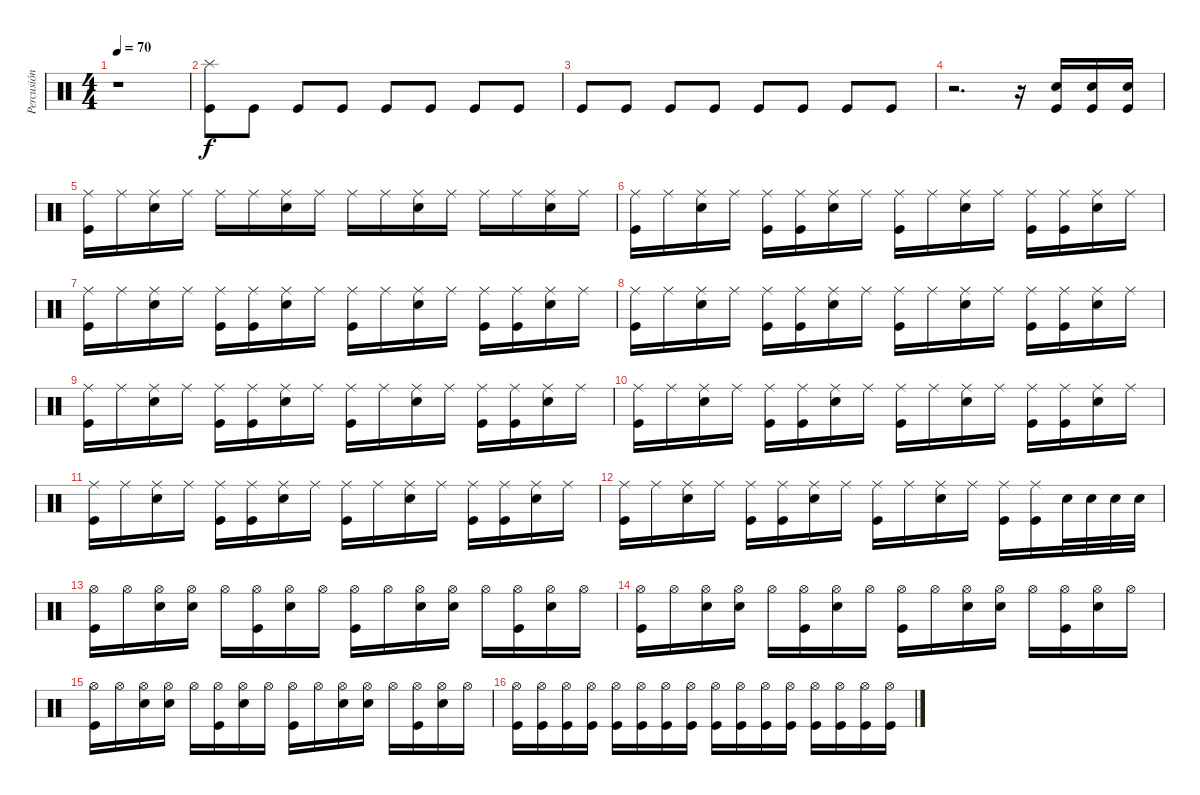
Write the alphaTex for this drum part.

\track ("Percusión" "Percusión") {instrument percussion}
\staff {score}
\articulation defaults
\ts (4 4)
\tempo 70
\clef neutral
\ks c
r.1{dy f} |
("Splash (hit)" "Kick (hit)").8 "Kick (hit)".8 "Kick (hit)".8 "Kick (hit)".8 "Kick (hit)".8 "Kick (hit)".8 "Kick (hit)".8 "Kick (hit)".8 |
"Kick (hit)".8 "Kick (hit)".8 "Kick (hit)".8 "Kick (hit)".8 "Kick (hit)".8 "Kick (hit)".8 "Kick (hit)".8 "Kick (hit)".8 |
r.2{d} r.16 ("Snare (hit) 2" "Kick (hit)").16 ("Snare (hit) 2" "Kick (hit)").16 ("Snare (hit) 2" "Kick (hit)").16 |
("Ride (middle)" "Kick (hit)").16 "Ride (middle)".16 ("Ride (middle)" "Snare (hit) 2").16 "Ride (middle)".16 "Ride (middle)".16 "Ride (middle)".16 ("Ride (middle)" "Snare (hit) 2").16 "Ride (middle)".16 "Ride (middle)".16 "Ride (middle)".16 ("Ride (middle)" "Snare (hit) 2").16 "Ride (middle)".16 "Ride (middle)".16 "Ride (middle)".16 ("Ride (middle)" "Snare (hit) 2").16 "Ride (middle)".16 |
("Ride (middle)" "Kick (hit)").16 "Ride (middle)".16 ("Ride (middle)" "Snare (hit) 2").16 "Ride (middle)".16 ("Ride (middle)" "Kick (hit)").16 ("Ride (middle)" "Kick (hit)").16 ("Ride (middle)" "Snare (hit) 2").16 "Ride (middle)".16 ("Ride (middle)" "Kick (hit)").16 "Ride (middle)".16 ("Ride (middle)" "Snare (hit) 2").16 "Ride (middle)".16 ("Ride (middle)" "Kick (hit)").16 ("Ride (middle)" "Kick (hit)").16 ("Ride (middle)" "Snare (hit) 2").16 "Ride (middle)".16 |
("Ride (middle)" "Kick (hit)").16 "Ride (middle)".16 ("Ride (middle)" "Snare (hit) 2").16 "Ride (middle)".16 ("Ride (middle)" "Kick (hit)").16 ("Ride (middle)" "Kick (hit)").16 ("Ride (middle)" "Snare (hit) 2").16 "Ride (middle)".16 ("Ride (middle)" "Kick (hit)").16 "Ride (middle)".16 ("Ride (middle)" "Snare (hit) 2").16 "Ride (middle)".16 ("Ride (middle)" "Kick (hit)").16 ("Ride (middle)" "Kick (hit)").16 ("Ride (middle)" "Snare (hit) 2").16 "Ride (middle)".16 |
("Ride (middle)" "Kick (hit)").16 "Ride (middle)".16 ("Ride (middle)" "Snare (hit) 2").16 "Ride (middle)".16 ("Ride (middle)" "Kick (hit)").16 ("Ride (middle)" "Kick (hit)").16 ("Ride (middle)" "Snare (hit) 2").16 "Ride (middle)".16 ("Ride (middle)" "Kick (hit)").16 "Ride (middle)".16 ("Ride (middle)" "Snare (hit) 2").16 "Ride (middle)".16 ("Ride (middle)" "Kick (hit)").16 ("Ride (middle)" "Kick (hit)").16 ("Ride (middle)" "Snare (hit) 2").16 "Ride (middle)".16 |
("Ride (middle)" "Kick (hit)").16 "Ride (middle)".16 ("Ride (middle)" "Snare (hit) 2").16 "Ride (middle)".16 ("Ride (middle)" "Kick (hit)").16 ("Ride (middle)" "Kick (hit)").16 ("Ride (middle)" "Snare (hit) 2").16 "Ride (middle)".16 ("Ride (middle)" "Kick (hit)").16 "Ride (middle)".16 ("Ride (middle)" "Snare (hit) 2").16 "Ride (middle)".16 ("Ride (middle)" "Kick (hit)").16 ("Ride (middle)" "Kick (hit)").16 ("Ride (middle)" "Snare (hit) 2").16 "Ride (middle)".16 |
("Ride (middle)" "Kick (hit)").16 "Ride (middle)".16 ("Ride (middle)" "Snare (hit) 2").16 "Ride (middle)".16 ("Ride (middle)" "Kick (hit)").16 ("Ride (middle)" "Kick (hit)").16 ("Ride (middle)" "Snare (hit) 2").16 "Ride (middle)".16 ("Ride (middle)" "Kick (hit)").16 "Ride (middle)".16 ("Ride (middle)" "Snare (hit) 2").16 "Ride (middle)".16 ("Ride (middle)" "Kick (hit)").16 ("Ride (middle)" "Kick (hit)").16 ("Ride (middle)" "Snare (hit) 2").16 "Ride (middle)".16 |
("Ride (middle)" "Kick (hit)").16 "Ride (middle)".16 ("Ride (middle)" "Snare (hit) 2").16 "Ride (middle)".16 ("Ride (middle)" "Kick (hit)").16 ("Ride (middle)" "Kick (hit)").16 ("Ride (middle)" "Snare (hit) 2").16 "Ride (middle)".16 ("Ride (middle)" "Kick (hit)").16 "Ride (middle)".16 ("Ride (middle)" "Snare (hit) 2").16 "Ride (middle)".16 ("Ride (middle)" "Kick (hit)").16 ("Ride (middle)" "Kick (hit)").16 ("Ride (middle)" "Snare (hit) 2").16 "Ride (middle)".16 |
("Ride (middle)" "Kick (hit)").16 "Ride (middle)".16 ("Ride (middle)" "Snare (hit) 2").16 "Ride (middle)".16 ("Ride (middle)" "Kick (hit)").16 ("Ride (middle)" "Kick (hit)").16 ("Ride (middle)" "Snare (hit) 2").16 "Ride (middle)".16 ("Ride (middle)" "Kick (hit)").16 "Ride (middle)".16 ("Ride (middle)" "Snare (hit) 2").16 "Ride (middle)".16 ("Ride (middle)" "Kick (hit)").16 ("Ride (middle)" "Kick (hit)").16 "Snare (hit) 2".32 "Snare (hit) 2".32 "Snare (hit) 2".32 "Snare (hit) 2".32 |
("Hi-Hat (open)" "Kick (hit)").16 "Hi-Hat (open)".16 ("Hi-Hat (open)" "Snare (hit) 2").16 ("Hi-Hat (open)" "Snare (hit) 2").16 "Hi-Hat (open)".16 ("Hi-Hat (open)" "Kick (hit)").16 ("Hi-Hat (open)" "Snare (hit) 2").16 "Hi-Hat (open)".16 ("Hi-Hat (open)" "Kick (hit)").16 "Hi-Hat (open)".16 ("Hi-Hat (open)" "Snare (hit) 2").16 ("Hi-Hat (open)" "Snare (hit) 2").16 "Hi-Hat (open)".16 ("Hi-Hat (open)" "Kick (hit)").16 ("Hi-Hat (open)" "Snare (hit) 2").16 "Hi-Hat (open)".16 |
("Hi-Hat (open)" "Kick (hit)").16 "Hi-Hat (open)".16 ("Hi-Hat (open)" "Snare (hit) 2").16 ("Hi-Hat (open)" "Snare (hit) 2").16 "Hi-Hat (open)".16 ("Hi-Hat (open)" "Kick (hit)").16 ("Hi-Hat (open)" "Snare (hit) 2").16 "Hi-Hat (open)".16 ("Hi-Hat (open)" "Kick (hit)").16 "Hi-Hat (open)".16 ("Hi-Hat (open)" "Snare (hit) 2").16 ("Hi-Hat (open)" "Snare (hit) 2").16 "Hi-Hat (open)".16 ("Hi-Hat (open)" "Kick (hit)").16 ("Hi-Hat (open)" "Snare (hit) 2").16 "Hi-Hat (open)".16 |
("Hi-Hat (open)" "Kick (hit)").16 "Hi-Hat (open)".16 ("Hi-Hat (open)" "Snare (hit) 2").16 ("Hi-Hat (open)" "Snare (hit) 2").16 "Hi-Hat (open)".16 ("Hi-Hat (open)" "Kick (hit)").16 ("Hi-Hat (open)" "Snare (hit) 2").16 "Hi-Hat (open)".16 ("Hi-Hat (open)" "Kick (hit)").16 "Hi-Hat (open)".16 ("Hi-Hat (open)" "Snare (hit) 2").16 ("Hi-Hat (open)" "Snare (hit) 2").16 "Hi-Hat (open)".16 ("Hi-Hat (open)" "Kick (hit)").16 ("Hi-Hat (open)" "Snare (hit) 2").16 "Hi-Hat (open)".16 |
("Hi-Hat (open)" "Kick (hit)").16 ("Hi-Hat (open)" "Kick (hit)").16 ("Hi-Hat (open)" "Kick (hit)").16 ("Hi-Hat (open)" "Kick (hit)").16 ("Hi-Hat (open)" "Kick (hit)").16 ("Hi-Hat (open)" "Kick (hit)").16 ("Hi-Hat (open)" "Kick (hit)").16 ("Hi-Hat (open)" "Kick (hit)").16 ("Hi-Hat (open)" "Kick (hit)").16 ("Hi-Hat (open)" "Kick (hit)").16 ("Hi-Hat (open)" "Kick (hit)").16 ("Hi-Hat (open)" "Kick (hit)").16 ("Hi-Hat (open)" "Kick (hit)").16 ("Hi-Hat (open)" "Kick (hit)").16 ("Hi-Hat (open)" "Kick (hit)").16 ("Hi-Hat (open)" "Kick (hit)").16
